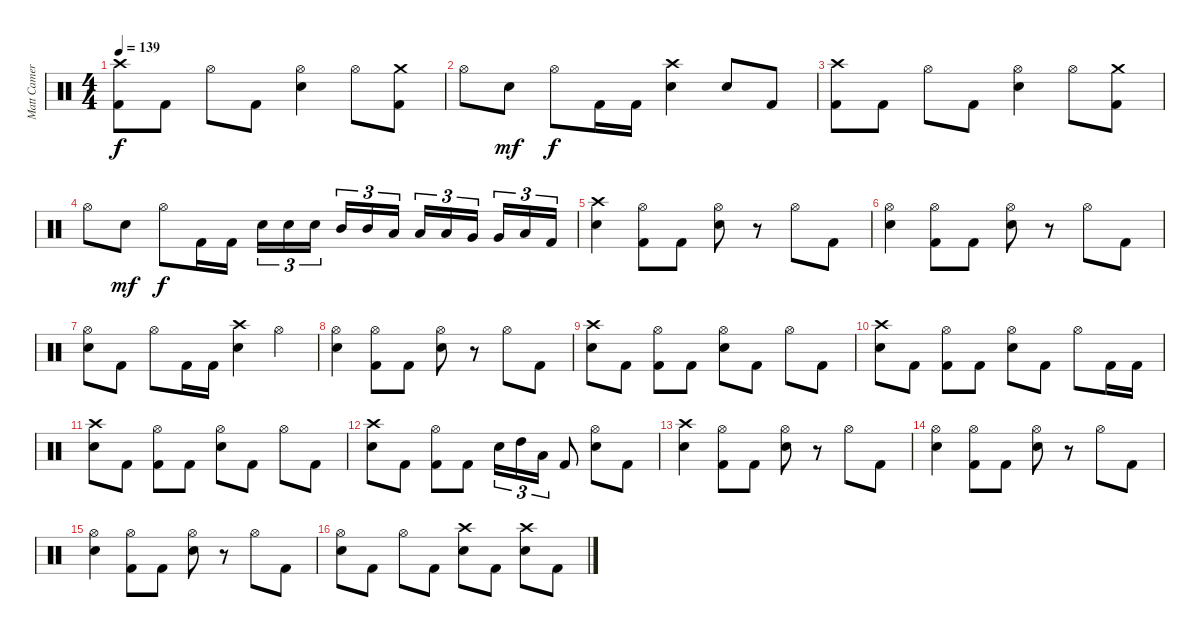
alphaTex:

\track ("Matt Cameron" "Matt Camer") {instrument percussion}
\staff {score}
\articulation defaults
\ts (4 4)
\tempo 139
\clef neutral
\ks c
("Crash high (hit)" "Kick (hit) 2").8{dy f} "Kick (hit) 2".8 "Hi-Hat (open)".8 "Kick (hit) 2".8 ("Hi-Hat (open)" "Snare (hit) 2").4 "Hi-Hat (open)".8 ("Crash medium (hit)" "Kick (hit) 2").8 |
"Hi-Hat (open)".8 "Snare (hit) 2".8{dy mf} "Hi-Hat (open)".8{dy f} "Kick (hit) 2".16 "Kick (hit) 2".16 ("Crash high (hit)" "Snare (hit) 2").4 "Snare (hit) 2".8 "Kick (hit) 2".8 |
("Crash high (hit)" "Kick (hit) 2").8 "Kick (hit) 2".8 "Hi-Hat (open)".8 "Kick (hit) 2".8 ("Hi-Hat (open)" "Snare (hit) 2").4 "Hi-Hat (open)".8 ("Crash medium (hit)" "Kick (hit) 2").8 |
"Hi-Hat (open)".8 "Snare (hit) 2".8{dy mf} "Hi-Hat (open)".8{dy f} "Kick (hit) 2".16 "Kick (hit) 2".16 "Snare (hit) 2".16{tu (3 2)} "Snare (hit) 2".16{tu (3 2)} "Snare (hit) 2".16{tu (3 2)} "Mid Tom (hit)".16{tu (3 2)} "Mid Tom (hit)".16{tu (3 2)} "Low Tom (hit)".16{tu (3 2)} "Low Tom (hit)".16{tu (3 2)} "Low Tom (hit)".16{tu (3 2)} "Very Low Tom (hit)".16{tu (3 2)} "Very Low Tom (hit)".16{tu (3 2)} "Low Floor Tom (hit)".16{tu (3 2)} "Kick (hit) 2".16{tu (3 2)} |
("Crash high (hit)" "Snare (hit) 2").4 ("Hi-Hat (open)" "Kick (hit) 2").8 "Kick (hit) 2".8 ("Hi-Hat (open)" "Snare (hit) 2").8 r.8 "Hi-Hat (open)".8 "Kick (hit) 2".8 |
("Hi-Hat (open)" "Snare (hit) 2").4 ("Hi-Hat (open)" "Kick (hit) 2").8 "Kick (hit) 2".8 ("Hi-Hat (open)" "Snare (hit) 2").8 r.8 "Hi-Hat (open)".8 "Kick (hit) 2".8 |
("Hi-Hat (open)" "Snare (hit) 2").8 "Kick (hit) 2".8 "Hi-Hat (open)".8 "Kick (hit) 2".16 "Kick (hit) 2".16 ("Crash high (hit)" "Snare (hit) 2").4 "Hi-Hat (open)".4 |
("Hi-Hat (open)" "Snare (hit) 2").4 ("Hi-Hat (open)" "Kick (hit) 2").8 "Kick (hit) 2".8 ("Hi-Hat (open)" "Snare (hit) 2").8 r.8 "Hi-Hat (open)".8 "Kick (hit) 2".8 |
("Crash high (hit)" "Snare (hit) 2").8 "Kick (hit) 2".8 ("Hi-Hat (open)" "Kick (hit) 2").8 "Kick (hit) 2".8 ("Hi-Hat (open)" "Snare (hit) 2").8 "Kick (hit) 2".8 "Hi-Hat (open)".8 "Kick (hit) 2".8 |
("Crash high (hit)" "Snare (hit) 2").8 "Kick (hit) 2".8 ("Hi-Hat (open)" "Kick (hit) 2").8 "Kick (hit) 2".8 ("Hi-Hat (open)" "Snare (hit) 2").8 "Kick (hit) 2".8 "Hi-Hat (open)".8 "Kick (hit) 2".16 "Kick (hit) 2".16 |
("Crash high (hit)" "Snare (hit) 2").8 "Kick (hit) 2".8 ("Hi-Hat (open)" "Kick (hit) 2").8 "Kick (hit) 2".8 ("Hi-Hat (open)" "Snare (hit) 2").8 "Kick (hit) 2".8 "Hi-Hat (open)".8 "Kick (hit) 2".8 |
("Crash high (hit)" "Snare (hit) 2").8 "Kick (hit) 2".8 ("Hi-Hat (open)" "Kick (hit) 2").8 "Kick (hit) 2".8 "Snare (hit) 2".16{tu (3 2)} "High Tom (hit)".16{tu (3 2)} "Low Tom (hit)".16{tu (3 2)} "Kick (hit) 2".8 ("Hi-Hat (open)" "Snare (hit) 2").8 "Kick (hit) 2".8 |
("Crash high (hit)" "Snare (hit) 2").4 ("Hi-Hat (open)" "Kick (hit) 2").8 "Kick (hit) 2".8 ("Hi-Hat (open)" "Snare (hit) 2").8 r.8 "Hi-Hat (open)".8 "Kick (hit) 2".8 |
("Hi-Hat (open)" "Snare (hit) 2").4 ("Hi-Hat (open)" "Kick (hit) 2").8 "Kick (hit) 2".8 ("Hi-Hat (open)" "Snare (hit) 2").8 r.8 "Hi-Hat (open)".8 "Kick (hit) 2".8 |
("Hi-Hat (open)" "Snare (hit) 2").4 ("Hi-Hat (open)" "Kick (hit) 2").8 "Kick (hit) 2".8 ("Hi-Hat (open)" "Snare (hit) 2").8 r.8 "Hi-Hat (open)".8 "Kick (hit) 2".8 |
("Hi-Hat (open)" "Snare (hit) 2").8 "Kick (hit) 2".8 "Hi-Hat (open)".8 "Kick (hit) 2".8 ("Crash high (hit)" "Snare (hit) 2").8 "Kick (hit) 2".8 ("Crash high (hit)" "Snare (hit) 2").8 "Kick (hit) 2".8
